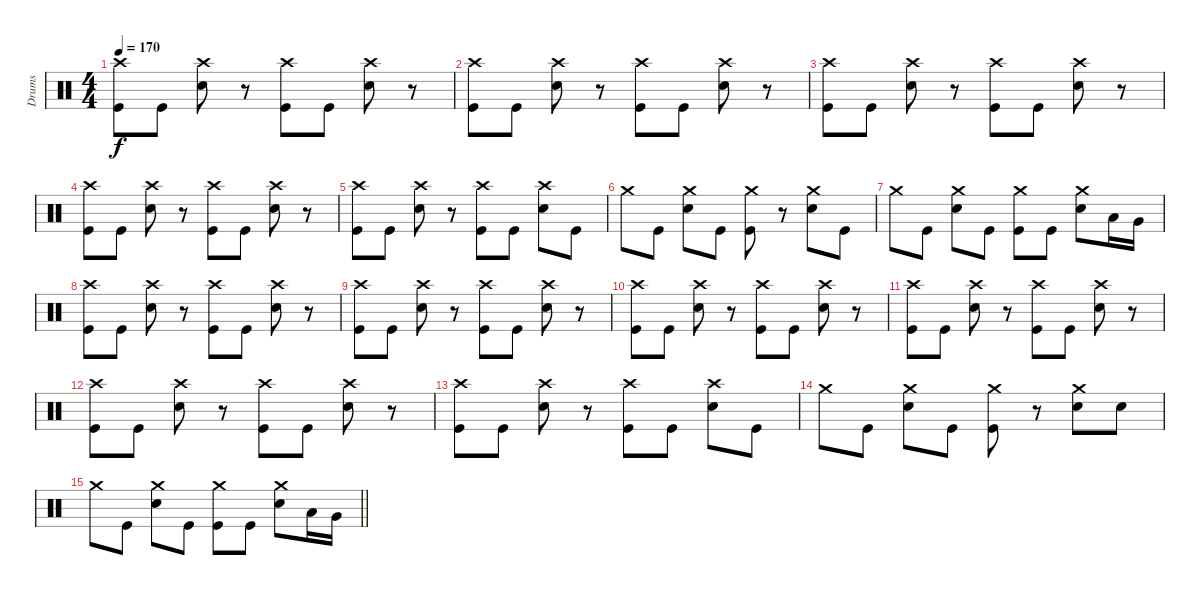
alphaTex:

\track ("Drums" "Drums") {instrument percussion}
\staff {score}
\articulation defaults
\ts (4 4)
\tempo 170
\clef neutral
\ks c
("Crash high (hit)" "Kick (hit)").8{dy f} "Kick (hit)".8 ("Crash high (hit)" "Snare (hit) 2").8 r.8 ("Crash high (hit)" "Kick (hit)").8 "Kick (hit)".8 ("Crash high (hit)" "Snare (hit) 2").8 r.8 |
("Crash high (hit)" "Kick (hit)").8 "Kick (hit)".8 ("Crash high (hit)" "Snare (hit) 2").8 r.8 ("Crash high (hit)" "Kick (hit)").8 "Kick (hit)".8 ("Crash high (hit)" "Snare (hit) 2").8 r.8 |
("Crash high (hit)" "Kick (hit)").8 "Kick (hit)".8 ("Crash high (hit)" "Snare (hit) 2").8 r.8 ("Crash high (hit)" "Kick (hit)").8 "Kick (hit)".8 ("Crash high (hit)" "Snare (hit) 2").8 r.8 |
("Crash high (hit)" "Kick (hit)").8 "Kick (hit)".8 ("Crash high (hit)" "Snare (hit) 2").8 r.8 ("Crash high (hit)" "Kick (hit)").8 "Kick (hit)".8 ("Crash high (hit)" "Snare (hit) 2").8 r.8 |
("Crash high (hit)" "Kick (hit)").8 "Kick (hit)".8 ("Crash high (hit)" "Snare (hit) 2").8 r.8 ("Crash high (hit)" "Kick (hit)").8 "Kick (hit)".8 ("Crash high (hit)" "Snare (hit) 2").8 "Kick (hit)".8 |
"Crash medium (hit)".8 "Kick (hit)".8 ("Crash medium (hit)" "Snare (hit) 2").8 "Kick (hit)".8 ("Crash medium (hit)" "Kick (hit)").8 r.8 ("Crash medium (hit)" "Snare (hit) 2").8 "Kick (hit)".8 |
"Crash medium (hit)".8 "Kick (hit)".8 ("Crash medium (hit)" "Snare (hit) 2").8 "Kick (hit)".8 ("Crash medium (hit)" "Kick (hit)").8 "Kick (hit)".8 ("Crash medium (hit)" "Snare (hit) 2").8 "Low Tom (hit)".16 "Very Low Tom (hit)".16 |
("Crash high (hit)" "Kick (hit)").8 "Kick (hit)".8 ("Crash high (hit)" "Snare (hit) 2").8 r.8 ("Crash high (hit)" "Kick (hit)").8 "Kick (hit)".8 ("Crash high (hit)" "Snare (hit) 2").8 r.8 |
("Crash high (hit)" "Kick (hit)").8 "Kick (hit)".8 ("Crash high (hit)" "Snare (hit) 2").8 r.8 ("Crash high (hit)" "Kick (hit)").8 "Kick (hit)".8 ("Crash high (hit)" "Snare (hit) 2").8 r.8 |
("Crash high (hit)" "Kick (hit)").8 "Kick (hit)".8 ("Crash high (hit)" "Snare (hit) 2").8 r.8 ("Crash high (hit)" "Kick (hit)").8 "Kick (hit)".8 ("Crash high (hit)" "Snare (hit) 2").8 r.8 |
("Crash high (hit)" "Kick (hit)").8 "Kick (hit)".8 ("Crash high (hit)" "Snare (hit) 2").8 r.8 ("Crash high (hit)" "Kick (hit)").8 "Kick (hit)".8 ("Crash high (hit)" "Snare (hit) 2").8 r.8 |
("Crash high (hit)" "Kick (hit)").8 "Kick (hit)".8 ("Crash high (hit)" "Snare (hit) 2").8 r.8 ("Crash high (hit)" "Kick (hit)").8 "Kick (hit)".8 ("Crash high (hit)" "Snare (hit) 2").8 r.8 |
("Crash high (hit)" "Kick (hit)").8 "Kick (hit)".8 ("Crash high (hit)" "Snare (hit) 2").8 r.8 ("Crash high (hit)" "Kick (hit)").8 "Kick (hit)".8 ("Crash high (hit)" "Snare (hit) 2").8 "Kick (hit)".8 |
"Crash medium (hit)".8 "Kick (hit)".8 ("Crash medium (hit)" "Snare (hit) 2").8 "Kick (hit)".8 ("Crash medium (hit)" "Kick (hit)").8 r.8 ("Crash medium (hit)" "Snare (hit) 2").8 "Snare (hit) 2".8 |
\barLineRight lightlight "Crash medium (hit)".8 "Kick (hit)".8
("Crash medium (hit)" "Snare (hit) 2").8 "Kick (hit)".8 ("Crash medium (hit)" "Kick (hit)").8 "Kick (hit)".8 ("Crash medium (hit)" "Snare (hit) 2").8 "Low Tom (hit)".16 "Very Low Tom (hit)".16
